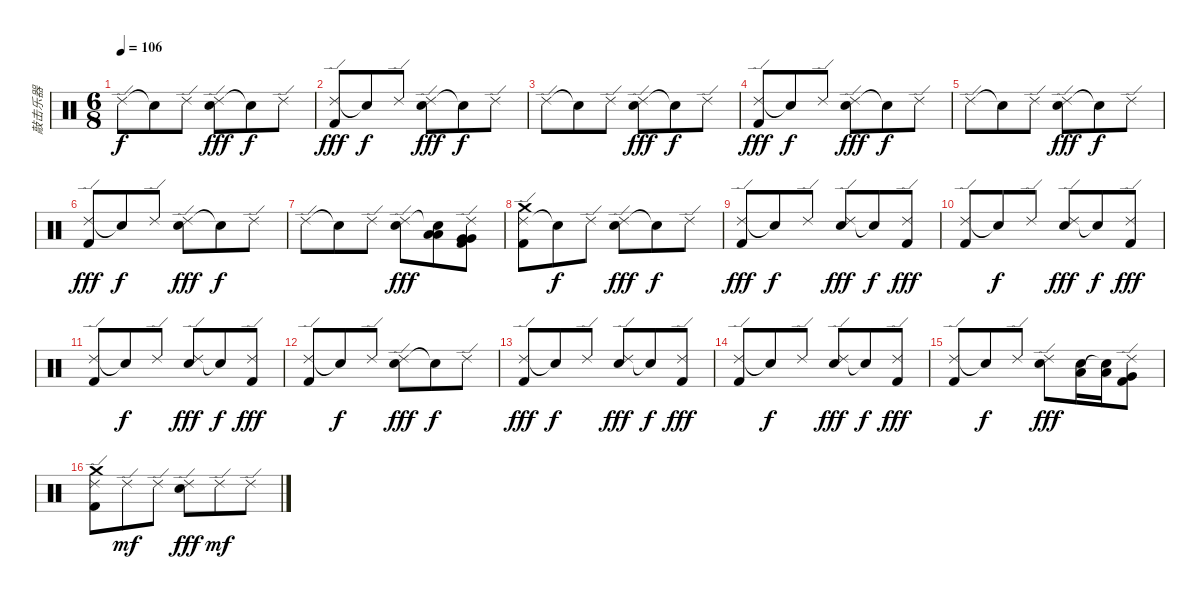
\track ("敲击乐器" "敲击乐器") {instrument percussion}
\staff {score}
\articulation defaults
\ts (6 8)
\tempo 106
\clef neutral
\ks c "Ride (edge) 2".8{dy f} "Snare (hit)"{t}.8 "Ride (edge) 2".8
("Ride (edge) 2" "Snare (hit) 2").8{dy fff} "Snare (hit)"{t}.8{dy f} "Ride (edge) 2".8 |
("Ride (edge) 2" "Kick (hit) 2").8{dy fff} "Snare (hit)"{t}.8{dy f} "Ride (edge) 2".8 ("Ride (edge) 2" "Snare (hit) 2").8{dy fff} "Snare (hit)"{t}.8{dy f} "Ride (edge) 2".8 |
"Ride (edge) 2".8 "Snare (hit)"{t}.8 "Ride (edge) 2".8 ("Ride (edge) 2" "Snare (hit) 2").8{dy fff} "Snare (hit)"{t}.8{dy f} "Ride (edge) 2".8 |
("Ride (edge) 2" "Kick (hit) 2").8{dy fff} "Snare (hit)"{t}.8{dy f} "Ride (edge) 2".8 ("Ride (edge) 2" "Snare (hit) 2").8{dy fff} "Snare (hit)"{t}.8{dy f} "Ride (edge) 2".8 |
"Ride (edge) 2".8 "Snare (hit)"{t}.8 "Ride (edge) 2".8 ("Ride (edge) 2" "Snare (hit) 2").8{dy fff} "Snare (hit)"{t}.8{dy f} "Ride (edge) 2".8 |
("Ride (edge) 2" "Kick (hit) 2").8{dy fff} "Snare (hit)"{t}.8{dy f} "Ride (edge) 2".8 ("Ride (edge) 2" "Snare (hit) 2").8{dy fff} "Snare (hit)"{t}.8{dy f} "Ride (edge) 2".8 |
"Ride (edge) 2".8 "Snare (hit)"{t}.8 "Ride (edge) 2".8 ("Ride (edge) 2" "Snare (hit) 2").8{dy fff} ("Snare (hit)"{t} "Low Tom (hit)" "Low Tom (hit)").8 ("Ride (edge) 2" "Very Low Tom (hit)" "Very Low Tom (hit)" "Kick (hit) 2").8 |
("Ride (edge) 2" "Crash medium (hit)" "Kick (hit) 2").8 "Snare (hit)"{t}.8{dy f} "Ride (edge) 2".8 ("Ride (edge) 2" "Snare (hit) 2").8{dy fff} "Snare (hit)"{t}.8{dy f} "Ride (edge) 2".8 |
("Ride (edge) 2" "Kick (hit) 2").8{dy fff} "Snare (hit)"{t}.8{dy f} "Ride (edge) 2".8 ("Ride (edge) 2" "Snare (hit) 2").8{dy fff} "Snare (hit)"{t}.8{dy f} ("Ride (edge) 2" "Kick (hit) 2").8{dy fff} |
("Ride (edge) 2" "Kick (hit) 2").8 "Snare (hit)"{t}.8{dy f} "Ride (edge) 2".8 ("Ride (edge) 2" "Snare (hit) 2").8{dy fff} "Snare (hit)"{t}.8{dy f} ("Ride (edge) 2" "Kick (hit) 2").8{dy fff} |
("Ride (edge) 2" "Kick (hit) 2").8 "Snare (hit)"{t}.8{dy f} "Ride (edge) 2".8 ("Ride (edge) 2" "Snare (hit) 2").8{dy fff} "Snare (hit)"{t}.8{dy f} ("Ride (edge) 2" "Kick (hit) 2").8{dy fff} |
("Ride (edge) 2" "Kick (hit) 2").8 "Snare (hit)"{t}.8{dy f} "Ride (edge) 2".8 ("Ride (edge) 2" "Snare (hit) 2").8{dy fff} "Snare (hit)"{t}.8{dy f} "Ride (edge) 2".8 |
("Ride (edge) 2" "Kick (hit) 2").8{dy fff} "Snare (hit)"{t}.8{dy f} "Ride (edge) 2".8 ("Ride (edge) 2" "Snare (hit) 2").8{dy fff} "Snare (hit)"{t}.8{dy f} ("Ride (edge) 2" "Kick (hit) 2").8{dy fff} |
("Ride (edge) 2" "Kick (hit) 2").8 "Snare (hit)"{t}.8{dy f} "Ride (edge) 2".8 ("Ride (edge) 2" "Snare (hit) 2").8{dy fff} "Snare (hit)"{t}.8{dy f} ("Ride (edge) 2" "Kick (hit) 2").8{dy fff} |
("Ride (edge) 2" "Kick (hit) 2").8 "Snare (hit)"{t}.8{dy f} "Ride (edge) 2".8 ("Ride (edge) 2" "Snare (hit) 2").8{dy fff} ("Low Tom (hit)" "Snare (hit) 2").16 ("Snare (hit)"{t} "Low Tom (hit)").16 ("Ride (edge) 2" "Very Low Tom (hit)" "Kick (hit) 2").8 |
("Ride (edge) 2" "Crash medium (hit)" "Kick (hit) 2").8 "Ride (edge) 2".8{dy mf} "Ride (edge) 2".8 ("Ride (edge) 2" "Snare (hit) 2").8{dy fff} "Ride (edge) 2".8{dy mf} "Ride (edge) 2".8
